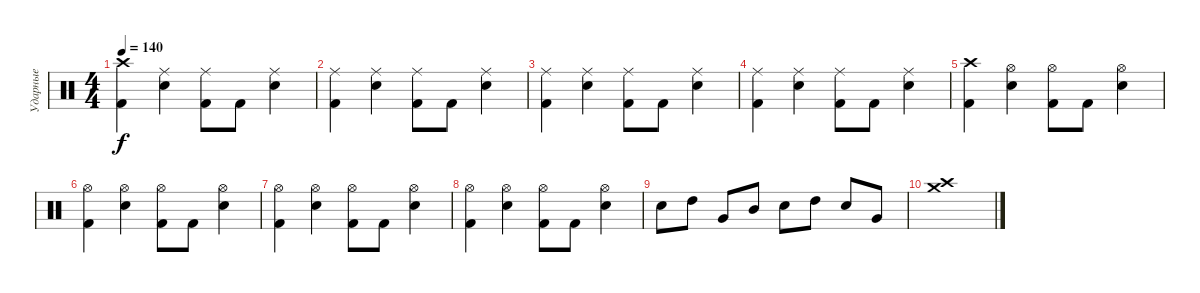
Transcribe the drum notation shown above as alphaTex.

\track ("Ударные" "Ударные") {instrument percussion}
\staff {score}
\articulation defaults
\ts (4 4)
\tempo 140
\clef neutral
\ks c
("Crash high (hit)" "Kick (hit) 2").4{dy f} ("Ride (middle)" "Electric Snare (hit)").4 ("Ride (middle)" "Kick (hit) 2").8 "Kick (hit) 2".8 ("Ride (middle)" "Electric Snare (hit)").4 |
("Ride (middle)" "Kick (hit) 2").4 ("Ride (middle)" "Electric Snare (hit)").4 ("Ride (middle)" "Kick (hit) 2").8 "Kick (hit) 2".8 ("Ride (middle)" "Electric Snare (hit)").4 |
("Ride (middle)" "Kick (hit) 2").4 ("Ride (middle)" "Electric Snare (hit)").4 ("Ride (middle)" "Kick (hit) 2").8 "Kick (hit) 2".8 ("Ride (middle)" "Electric Snare (hit)").4 |
("Ride (middle)" "Kick (hit) 2").4 ("Ride (middle)" "Electric Snare (hit)").4 ("Ride (middle)" "Kick (hit) 2").8 "Kick (hit) 2".8 ("Ride (middle)" "Electric Snare (hit)").4 |
("Crash high (hit)" "Kick (hit) 2").4 ("Hi-Hat (open)" "Electric Snare (hit)").4 ("Hi-Hat (open)" "Kick (hit) 2").8 "Kick (hit) 2".8 ("Hi-Hat (open)" "Electric Snare (hit)").4 |
("Hi-Hat (open)" "Kick (hit) 2").4 ("Hi-Hat (open)" "Electric Snare (hit)").4 ("Hi-Hat (open)" "Kick (hit) 2").8 "Kick (hit) 2".8 ("Hi-Hat (open)" "Electric Snare (hit)").4 |
("Hi-Hat (open)" "Kick (hit) 2").4 ("Hi-Hat (open)" "Electric Snare (hit)").4 ("Hi-Hat (open)" "Kick (hit) 2").8 "Kick (hit) 2".8 ("Hi-Hat (open)" "Electric Snare (hit)").4 |
("Hi-Hat (open)" "Kick (hit) 2").4 ("Hi-Hat (open)" "Electric Snare (hit)").4 ("Hi-Hat (open)" "Kick (hit) 2").8 "Kick (hit) 2".8 ("Hi-Hat (open)" "Electric Snare (hit)").4 |
"Electric Snare (hit)".8 "High Tom (hit)".8 "Very Low Tom (hit)".8 "Mid Tom (hit)".8 "Electric Snare (hit)".8 "High Tom (hit)".8 "Electric Snare (hit)".8 "Very Low Tom (hit)".8 |
("Crash high (hit)" "Crash medium (hit)").1
